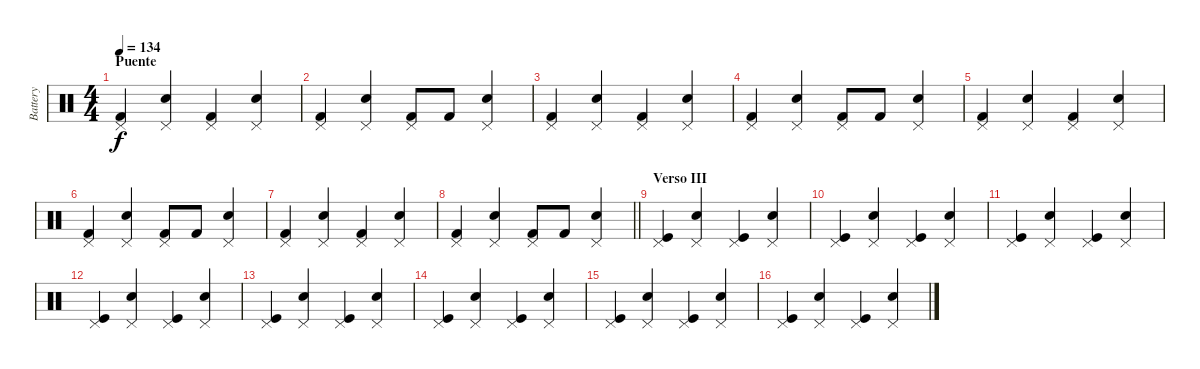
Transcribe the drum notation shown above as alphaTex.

\track ("Battery" "Battery") {instrument percussion}
\staff {score}
\articulation defaults
\ts (4 4)
\section ("" "Puente")
\tempo 134
\clef neutral
\ks c
("Pedal Hi-Hat (hit)" "Kick (hit) 2").4{dy f} ("Pedal Hi-Hat (hit)" "Snare (hit) 2").4 ("Pedal Hi-Hat (hit)" "Kick (hit) 2").4 ("Pedal Hi-Hat (hit)" "Snare (hit) 2").4 |
("Pedal Hi-Hat (hit)" "Kick (hit) 2").4 ("Pedal Hi-Hat (hit)" "Snare (hit) 2").4 ("Pedal Hi-Hat (hit)" "Kick (hit) 2").8 "Kick (hit) 2".8 ("Pedal Hi-Hat (hit)" "Snare (hit) 2").4 |
("Pedal Hi-Hat (hit)" "Kick (hit) 2").4 ("Pedal Hi-Hat (hit)" "Snare (hit) 2").4 ("Pedal Hi-Hat (hit)" "Kick (hit) 2").4 ("Pedal Hi-Hat (hit)" "Snare (hit) 2").4 |
("Pedal Hi-Hat (hit)" "Kick (hit) 2").4 ("Pedal Hi-Hat (hit)" "Snare (hit) 2").4 ("Pedal Hi-Hat (hit)" "Kick (hit) 2").8 "Kick (hit) 2".8 ("Pedal Hi-Hat (hit)" "Snare (hit) 2").4 |
("Pedal Hi-Hat (hit)" "Kick (hit) 2").4 ("Pedal Hi-Hat (hit)" "Snare (hit) 2").4 ("Pedal Hi-Hat (hit)" "Kick (hit) 2").4 ("Pedal Hi-Hat (hit)" "Snare (hit) 2").4 |
("Pedal Hi-Hat (hit)" "Kick (hit) 2").4 ("Pedal Hi-Hat (hit)" "Snare (hit) 2").4 ("Pedal Hi-Hat (hit)" "Kick (hit) 2").8 "Kick (hit) 2".8 ("Pedal Hi-Hat (hit)" "Snare (hit) 2").4 |
("Pedal Hi-Hat (hit)" "Kick (hit) 2").4 ("Pedal Hi-Hat (hit)" "Snare (hit) 2").4 ("Pedal Hi-Hat (hit)" "Kick (hit) 2").4 ("Pedal Hi-Hat (hit)" "Snare (hit) 2").4 |
\barLineRight lightlight
("Pedal Hi-Hat (hit)" "Kick (hit) 2").4 ("Pedal Hi-Hat (hit)" "Snare (hit) 2").4 ("Pedal Hi-Hat (hit)" "Kick (hit) 2").8 "Kick (hit) 2".8 ("Pedal Hi-Hat (hit)" "Snare (hit) 2").4 |
\section ("" "Verso III")
("Pedal Hi-Hat (hit)" "Kick (hit)").4 ("Pedal Hi-Hat (hit)" "Snare (hit) 2").4 ("Pedal Hi-Hat (hit)" "Kick (hit)").4 ("Pedal Hi-Hat (hit)" "Snare (hit) 2").4 |
("Pedal Hi-Hat (hit)" "Kick (hit)").4 ("Pedal Hi-Hat (hit)" "Snare (hit) 2").4 ("Pedal Hi-Hat (hit)" "Kick (hit)").4 ("Pedal Hi-Hat (hit)" "Snare (hit) 2").4 |
("Pedal Hi-Hat (hit)" "Kick (hit)").4 ("Pedal Hi-Hat (hit)" "Snare (hit) 2").4 ("Pedal Hi-Hat (hit)" "Kick (hit)").4 ("Pedal Hi-Hat (hit)" "Snare (hit) 2").4 |
("Pedal Hi-Hat (hit)" "Kick (hit)").4 ("Pedal Hi-Hat (hit)" "Snare (hit) 2").4 ("Pedal Hi-Hat (hit)" "Kick (hit)").4 ("Pedal Hi-Hat (hit)" "Snare (hit) 2").4 |
("Pedal Hi-Hat (hit)" "Kick (hit)").4 ("Pedal Hi-Hat (hit)" "Snare (hit) 2").4 ("Pedal Hi-Hat (hit)" "Kick (hit)").4 ("Pedal Hi-Hat (hit)" "Snare (hit) 2").4 |
("Pedal Hi-Hat (hit)" "Kick (hit)").4 ("Pedal Hi-Hat (hit)" "Snare (hit) 2").4 ("Pedal Hi-Hat (hit)" "Kick (hit)").4 ("Pedal Hi-Hat (hit)" "Snare (hit) 2").4 |
("Pedal Hi-Hat (hit)" "Kick (hit)").4 ("Pedal Hi-Hat (hit)" "Snare (hit) 2").4 ("Pedal Hi-Hat (hit)" "Kick (hit)").4 ("Pedal Hi-Hat (hit)" "Snare (hit) 2").4 |
("Pedal Hi-Hat (hit)" "Kick (hit)").4 ("Pedal Hi-Hat (hit)" "Snare (hit) 2").4 ("Pedal Hi-Hat (hit)" "Kick (hit)").4 ("Pedal Hi-Hat (hit)" "Snare (hit) 2").4
